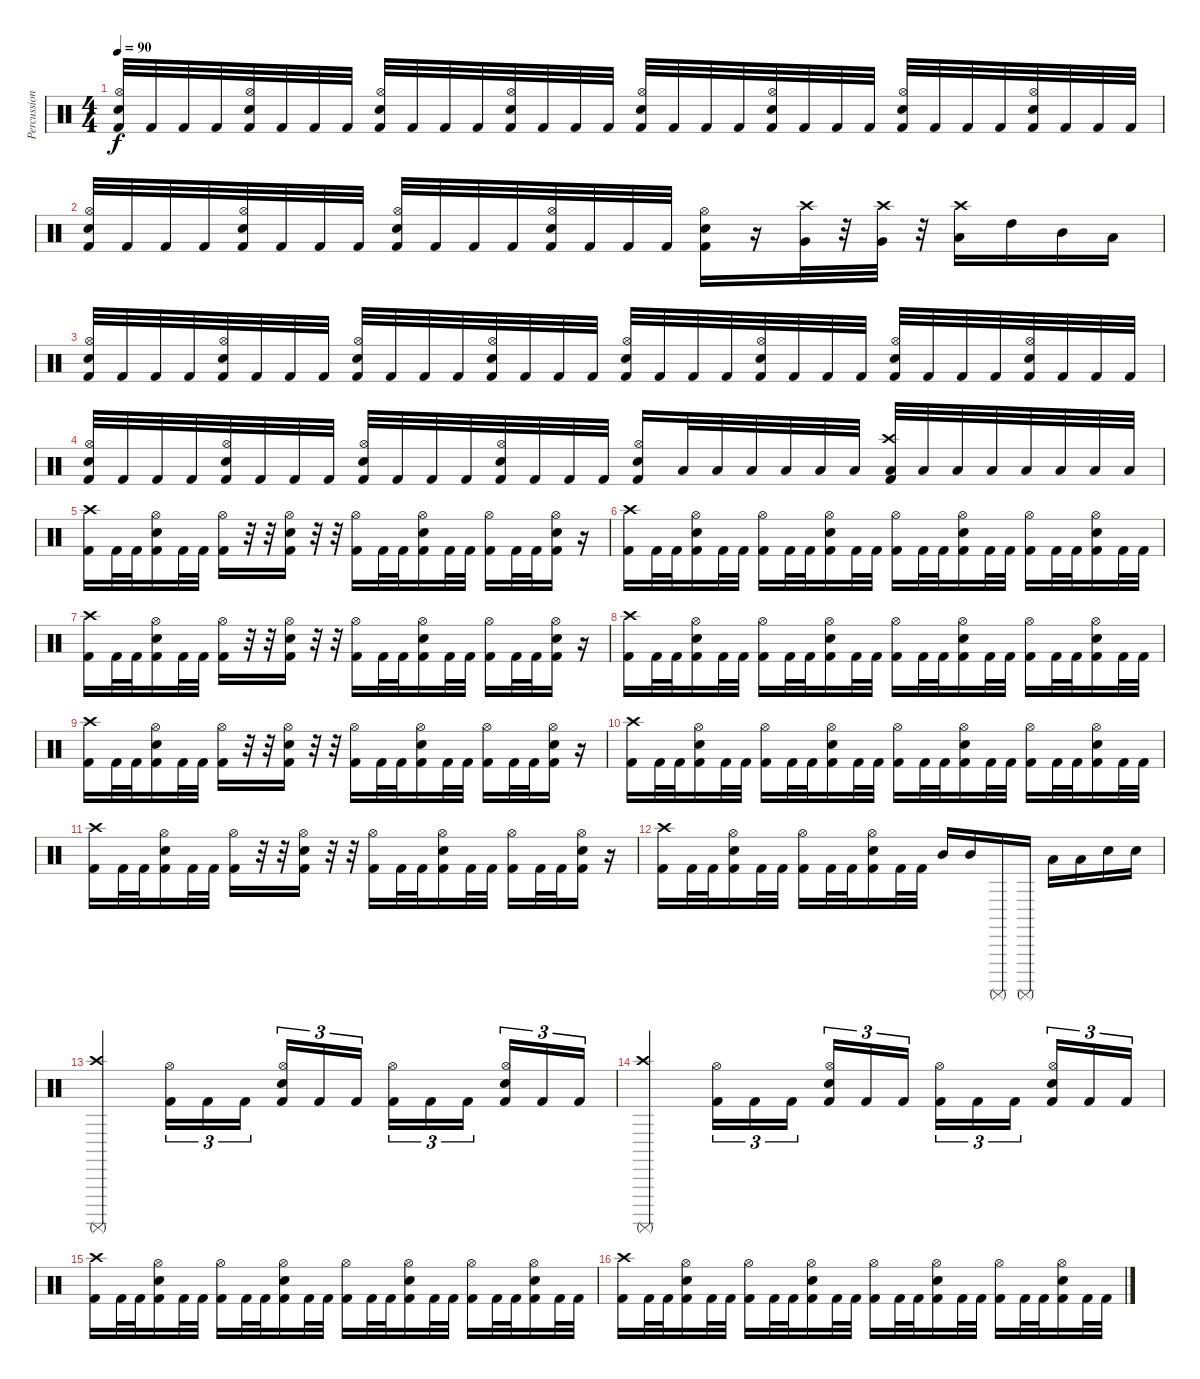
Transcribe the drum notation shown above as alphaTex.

\track ("Percussion" "Percussion") {instrument percussion}
\staff {score}
\articulation defaults
\ts (4 4)
\tempo 90
\clef neutral
\ks c
("Kick (hit) 2" "Hi-Hat (open)" "Electric Snare (hit)").32{dy f} "Kick (hit) 2".32 "Kick (hit) 2".32 "Kick (hit) 2".32 ("Kick (hit) 2" "Hi-Hat (open)" "Electric Snare (hit)").32 "Kick (hit) 2".32 "Kick (hit) 2".32 "Kick (hit) 2".32 ("Kick (hit) 2" "Hi-Hat (open)" "Electric Snare (hit)").32 "Kick (hit) 2".32 "Kick (hit) 2".32 "Kick (hit) 2".32 ("Kick (hit) 2" "Hi-Hat (open)" "Electric Snare (hit)").32 "Kick (hit) 2".32 "Kick (hit) 2".32 "Kick (hit) 2".32 ("Kick (hit) 2" "Hi-Hat (open)" "Electric Snare (hit)").32 "Kick (hit) 2".32 "Kick (hit) 2".32 "Kick (hit) 2".32 ("Kick (hit) 2" "Hi-Hat (open)" "Electric Snare (hit)").32 "Kick (hit) 2".32 "Kick (hit) 2".32 "Kick (hit) 2".32 ("Kick (hit) 2" "Hi-Hat (open)" "Electric Snare (hit)").32 "Kick (hit) 2".32 "Kick (hit) 2".32 "Kick (hit) 2".32 ("Kick (hit) 2" "Hi-Hat (open)" "Electric Snare (hit)").32 "Kick (hit) 2".32 "Kick (hit) 2".32 "Kick (hit) 2".32 |
("Kick (hit) 2" "Hi-Hat (open)" "Electric Snare (hit)").32 "Kick (hit) 2".32 "Kick (hit) 2".32 "Kick (hit) 2".32 ("Kick (hit) 2" "Hi-Hat (open)" "Electric Snare (hit)").32 "Kick (hit) 2".32 "Kick (hit) 2".32 "Kick (hit) 2".32 ("Kick (hit) 2" "Hi-Hat (open)" "Electric Snare (hit)").32 "Kick (hit) 2".32 "Kick (hit) 2".32 "Kick (hit) 2".32 ("Kick (hit) 2" "Hi-Hat (open)" "Electric Snare (hit)").32 "Kick (hit) 2".32 "Kick (hit) 2".32 "Kick (hit) 2".32 ("Kick (hit) 2" "Hi-Hat (open)" "Electric Snare (hit)").16 r.16 ("Crash high (hit)" "Very Low Tom (hit)").32 r.32 ("Crash high (hit)" "Very Low Tom (hit)").32 r.32 ("Crash high (hit)" "Low Floor Tom (hit)").16 "High Tom (hit)".16 "Mid Tom (hit)".16 "Low Tom (hit)".16 |
("Kick (hit) 2" "Hi-Hat (open)" "Electric Snare (hit)").32 "Kick (hit) 2".32 "Kick (hit) 2".32 "Kick (hit) 2".32 ("Kick (hit) 2" "Hi-Hat (open)" "Electric Snare (hit)").32 "Kick (hit) 2".32 "Kick (hit) 2".32 "Kick (hit) 2".32 ("Kick (hit) 2" "Hi-Hat (open)" "Electric Snare (hit)").32 "Kick (hit) 2".32 "Kick (hit) 2".32 "Kick (hit) 2".32 ("Kick (hit) 2" "Hi-Hat (open)" "Electric Snare (hit)").32 "Kick (hit) 2".32 "Kick (hit) 2".32 "Kick (hit) 2".32 ("Kick (hit) 2" "Hi-Hat (open)" "Electric Snare (hit)").32 "Kick (hit) 2".32 "Kick (hit) 2".32 "Kick (hit) 2".32 ("Kick (hit) 2" "Hi-Hat (open)" "Electric Snare (hit)").32 "Kick (hit) 2".32 "Kick (hit) 2".32 "Kick (hit) 2".32 ("Kick (hit) 2" "Hi-Hat (open)" "Electric Snare (hit)").32 "Kick (hit) 2".32 "Kick (hit) 2".32 "Kick (hit) 2".32 ("Kick (hit) 2" "Hi-Hat (open)" "Electric Snare (hit)").32 "Kick (hit) 2".32 "Kick (hit) 2".32 "Kick (hit) 2".32 |
("Kick (hit) 2" "Hi-Hat (open)" "Electric Snare (hit)").32 "Kick (hit) 2".32 "Kick (hit) 2".32 "Kick (hit) 2".32 ("Kick (hit) 2" "Hi-Hat (open)" "Electric Snare (hit)").32 "Kick (hit) 2".32 "Kick (hit) 2".32 "Kick (hit) 2".32 ("Kick (hit) 2" "Hi-Hat (open)" "Electric Snare (hit)").32 "Kick (hit) 2".32 "Kick (hit) 2".32 "Kick (hit) 2".32 ("Kick (hit) 2" "Hi-Hat (open)" "Electric Snare (hit)").32 "Kick (hit) 2".32 "Kick (hit) 2".32 "Kick (hit) 2".32 ("Kick (hit) 2" "Hi-Hat (open)" "Electric Snare (hit)").16 "Low Tom (hit)".32 "Low Tom (hit)".32 "Low Tom (hit)".32 "Low Tom (hit)".32 "Low Tom (hit)".32 "Low Tom (hit)".32 ("Low Tom (hit)" "Crash high (hit)" "Kick (hit) 2").32 "Low Tom (hit)".32 "Low Tom (hit)".32 "Low Tom (hit)".32 "Low Tom (hit)".32 "Low Tom (hit)".32 "Low Tom (hit)".32 "Low Tom (hit)".32 |
("Kick (hit) 2" "Crash high (hit)").16 "Kick (hit) 2".32 "Kick (hit) 2".32 ("Kick (hit) 2" "Electric Snare (hit)" "Hi-Hat (open)").16 "Kick (hit) 2".32 "Kick (hit) 2".32 ("Kick (hit) 2" "Hi-Hat (open)").16 r.32 r.32 ("Kick (hit) 2" "Electric Snare (hit)" "Hi-Hat (open)").16 r.32 r.32 ("Kick (hit) 2" "Hi-Hat (open)").16 "Kick (hit) 2".32 "Kick (hit) 2".32 ("Kick (hit) 2" "Electric Snare (hit)" "Hi-Hat (open)").16 "Kick (hit) 2".32 "Kick (hit) 2".32 ("Kick (hit) 2" "Hi-Hat (open)").16 "Kick (hit) 2".32 "Kick (hit) 2".32 ("Kick (hit) 2" "Electric Snare (hit)" "Hi-Hat (open)").16 r.16 |
("Kick (hit) 2" "Crash high (hit)").16 "Kick (hit) 2".32 "Kick (hit) 2".32 ("Kick (hit) 2" "Electric Snare (hit)" "Hi-Hat (open)").16 "Kick (hit) 2".32 "Kick (hit) 2".32 ("Kick (hit) 2" "Hi-Hat (open)").16 "Kick (hit) 2".32 "Kick (hit) 2".32 ("Kick (hit) 2" "Electric Snare (hit)" "Hi-Hat (open)").16 "Kick (hit) 2".32 "Kick (hit) 2".32 ("Kick (hit) 2" "Hi-Hat (open)").16 "Kick (hit) 2".32 "Kick (hit) 2".32 ("Kick (hit) 2" "Electric Snare (hit)" "Hi-Hat (open)").16 "Kick (hit) 2".32 "Kick (hit) 2".32 ("Kick (hit) 2" "Hi-Hat (open)").16 "Kick (hit) 2".32 "Kick (hit) 2".32 ("Kick (hit) 2" "Electric Snare (hit)" "Hi-Hat (open)").16 "Kick (hit) 2".32 "Kick (hit) 2".32 |
("Kick (hit) 2" "Crash high (hit)").16 "Kick (hit) 2".32 "Kick (hit) 2".32 ("Kick (hit) 2" "Electric Snare (hit)" "Hi-Hat (open)").16 "Kick (hit) 2".32 "Kick (hit) 2".32 ("Kick (hit) 2" "Hi-Hat (open)").16 r.32 r.32 ("Kick (hit) 2" "Electric Snare (hit)" "Hi-Hat (open)").16 r.32 r.32 ("Kick (hit) 2" "Hi-Hat (open)").16 "Kick (hit) 2".32 "Kick (hit) 2".32 ("Kick (hit) 2" "Electric Snare (hit)" "Hi-Hat (open)").16 "Kick (hit) 2".32 "Kick (hit) 2".32 ("Kick (hit) 2" "Hi-Hat (open)").16 "Kick (hit) 2".32 "Kick (hit) 2".32 ("Kick (hit) 2" "Electric Snare (hit)" "Hi-Hat (open)").16 r.16 |
("Kick (hit) 2" "Crash high (hit)").16 "Kick (hit) 2".32 "Kick (hit) 2".32 ("Kick (hit) 2" "Electric Snare (hit)" "Hi-Hat (open)").16 "Kick (hit) 2".32 "Kick (hit) 2".32 ("Kick (hit) 2" "Hi-Hat (open)").16 "Kick (hit) 2".32 "Kick (hit) 2".32 ("Kick (hit) 2" "Electric Snare (hit)" "Hi-Hat (open)").16 "Kick (hit) 2".32 "Kick (hit) 2".32 ("Kick (hit) 2" "Hi-Hat (open)").16 "Kick (hit) 2".32 "Kick (hit) 2".32 ("Kick (hit) 2" "Electric Snare (hit)" "Hi-Hat (open)").16 "Kick (hit) 2".32 "Kick (hit) 2".32 ("Kick (hit) 2" "Hi-Hat (open)").16 "Kick (hit) 2".32 "Kick (hit) 2".32 ("Kick (hit) 2" "Electric Snare (hit)" "Hi-Hat (open)").16 "Kick (hit) 2".32 "Kick (hit) 2".32 |
("Kick (hit) 2" "Crash high (hit)").16 "Kick (hit) 2".32 "Kick (hit) 2".32 ("Kick (hit) 2" "Electric Snare (hit)" "Hi-Hat (open)").16 "Kick (hit) 2".32 "Kick (hit) 2".32 ("Kick (hit) 2" "Hi-Hat (open)").16 r.32 r.32 ("Kick (hit) 2" "Electric Snare (hit)" "Hi-Hat (open)").16 r.32 r.32 ("Kick (hit) 2" "Hi-Hat (open)").16 "Kick (hit) 2".32 "Kick (hit) 2".32 ("Kick (hit) 2" "Electric Snare (hit)" "Hi-Hat (open)").16 "Kick (hit) 2".32 "Kick (hit) 2".32 ("Kick (hit) 2" "Hi-Hat (open)").16 "Kick (hit) 2".32 "Kick (hit) 2".32 ("Kick (hit) 2" "Electric Snare (hit)" "Hi-Hat (open)").16 r.16 |
("Kick (hit) 2" "Crash high (hit)").16 "Kick (hit) 2".32 "Kick (hit) 2".32 ("Kick (hit) 2" "Electric Snare (hit)" "Hi-Hat (open)").16 "Kick (hit) 2".32 "Kick (hit) 2".32 ("Kick (hit) 2" "Hi-Hat (open)").16 "Kick (hit) 2".32 "Kick (hit) 2".32 ("Kick (hit) 2" "Electric Snare (hit)" "Hi-Hat (open)").16 "Kick (hit) 2".32 "Kick (hit) 2".32 ("Kick (hit) 2" "Hi-Hat (open)").16 "Kick (hit) 2".32 "Kick (hit) 2".32 ("Kick (hit) 2" "Electric Snare (hit)" "Hi-Hat (open)").16 "Kick (hit) 2".32 "Kick (hit) 2".32 ("Kick (hit) 2" "Hi-Hat (open)").16 "Kick (hit) 2".32 "Kick (hit) 2".32 ("Kick (hit) 2" "Electric Snare (hit)" "Hi-Hat (open)").16 "Kick (hit) 2".32 "Kick (hit) 2".32 |
("Kick (hit) 2" "Crash high (hit)").16 "Kick (hit) 2".32 "Kick (hit) 2".32 ("Kick (hit) 2" "Electric Snare (hit)" "Hi-Hat (open)").16 "Kick (hit) 2".32 "Kick (hit) 2".32 ("Kick (hit) 2" "Hi-Hat (open)").16 r.32 r.32 ("Kick (hit) 2" "Electric Snare (hit)" "Hi-Hat (open)").16 r.32 r.32 ("Kick (hit) 2" "Hi-Hat (open)").16 "Kick (hit) 2".32 "Kick (hit) 2".32 ("Kick (hit) 2" "Electric Snare (hit)" "Hi-Hat (open)").16 "Kick (hit) 2".32 "Kick (hit) 2".32 ("Kick (hit) 2" "Hi-Hat (open)").16 "Kick (hit) 2".32 "Kick (hit) 2".32 ("Kick (hit) 2" "Electric Snare (hit)" "Hi-Hat (open)").16 r.16 |
("Kick (hit) 2" "Crash high (hit)").16 "Kick (hit) 2".32 "Kick (hit) 2".32 ("Kick (hit) 2" "Electric Snare (hit)" "Hi-Hat (open)").16 "Kick (hit) 2".32 "Kick (hit) 2".32 ("Kick (hit) 2" "Hi-Hat (open)").16 "Kick (hit) 2".32 "Kick (hit) 2".32 ("Kick (hit) 2" "Electric Snare (hit)" "Hi-Hat (open)").16 "Kick (hit) 2".32 "Kick (hit) 2".32 "Mid Tom (hit)".16 "Mid Tom (hit)".16 "Surdo (mute)".16 "Surdo (mute)".16 "Low Tom (hit)".16 "Low Tom (hit)".16 "Snare (hit) 2".16 "Snare (hit) 2".16 |
("Surdo (mute)" "Crash high (hit)").2 ("Kick (hit) 2" "Hi-Hat (open)").16{tu (3 2)} "Kick (hit) 2".16{tu (3 2)} "Kick (hit) 2".16{tu (3 2) beam splitsecondary} ("Kick (hit) 2" "Electric Snare (hit)" "Hi-Hat (open)").16{tu (3 2)} "Kick (hit) 2".16{tu (3 2)} "Kick (hit) 2".16{tu (3 2)} ("Kick (hit) 2" "Hi-Hat (open)").16{tu (3 2)} "Kick (hit) 2".16{tu (3 2)} "Kick (hit) 2".16{tu (3 2) beam splitsecondary} ("Kick (hit) 2" "Electric Snare (hit)" "Hi-Hat (open)").16{tu (3 2)} "Kick (hit) 2".16{tu (3 2)} "Kick (hit) 2".16{tu (3 2)} |
("Surdo (mute)" "Crash high (hit)").2 ("Kick (hit) 2" "Hi-Hat (open)").16{tu (3 2)} "Kick (hit) 2".16{tu (3 2)} "Kick (hit) 2".16{tu (3 2) beam splitsecondary} ("Kick (hit) 2" "Electric Snare (hit)" "Hi-Hat (open)").16{tu (3 2)} "Kick (hit) 2".16{tu (3 2)} "Kick (hit) 2".16{tu (3 2)} ("Kick (hit) 2" "Hi-Hat (open)").16{tu (3 2)} "Kick (hit) 2".16{tu (3 2)} "Kick (hit) 2".16{tu (3 2) beam splitsecondary} ("Kick (hit) 2" "Electric Snare (hit)" "Hi-Hat (open)").16{tu (3 2)} "Kick (hit) 2".16{tu (3 2)} "Kick (hit) 2".16{tu (3 2)} |
("Kick (hit) 2" "Crash high (hit)").16 "Kick (hit) 2".32 "Kick (hit) 2".32 ("Kick (hit) 2" "Electric Snare (hit)" "Hi-Hat (open)").16 "Kick (hit) 2".32 "Kick (hit) 2".32 ("Kick (hit) 2" "Hi-Hat (open)").16 "Kick (hit) 2".32 "Kick (hit) 2".32 ("Kick (hit) 2" "Electric Snare (hit)" "Hi-Hat (open)").16 "Kick (hit) 2".32 "Kick (hit) 2".32 ("Kick (hit) 2" "Hi-Hat (open)").16 "Kick (hit) 2".32 "Kick (hit) 2".32 ("Kick (hit) 2" "Electric Snare (hit)" "Hi-Hat (open)").16 "Kick (hit) 2".32 "Kick (hit) 2".32 ("Kick (hit) 2" "Hi-Hat (open)").16 "Kick (hit) 2".32 "Kick (hit) 2".32 ("Kick (hit) 2" "Electric Snare (hit)" "Hi-Hat (open)").16 "Kick (hit) 2".32 "Kick (hit) 2".32 |
("Kick (hit) 2" "Crash high (hit)").16 "Kick (hit) 2".32 "Kick (hit) 2".32 ("Kick (hit) 2" "Electric Snare (hit)" "Hi-Hat (open)").16 "Kick (hit) 2".32 "Kick (hit) 2".32 ("Kick (hit) 2" "Hi-Hat (open)").16 "Kick (hit) 2".32 "Kick (hit) 2".32 ("Kick (hit) 2" "Electric Snare (hit)" "Hi-Hat (open)").16 "Kick (hit) 2".32 "Kick (hit) 2".32 ("Kick (hit) 2" "Hi-Hat (open)").16 "Kick (hit) 2".32 "Kick (hit) 2".32 ("Kick (hit) 2" "Electric Snare (hit)" "Hi-Hat (open)").16 "Kick (hit) 2".32 "Kick (hit) 2".32 ("Kick (hit) 2" "Hi-Hat (open)").16 "Kick (hit) 2".32 "Kick (hit) 2".32 ("Kick (hit) 2" "Electric Snare (hit)" "Hi-Hat (open)").16 "Kick (hit) 2".32 "Kick (hit) 2".32
